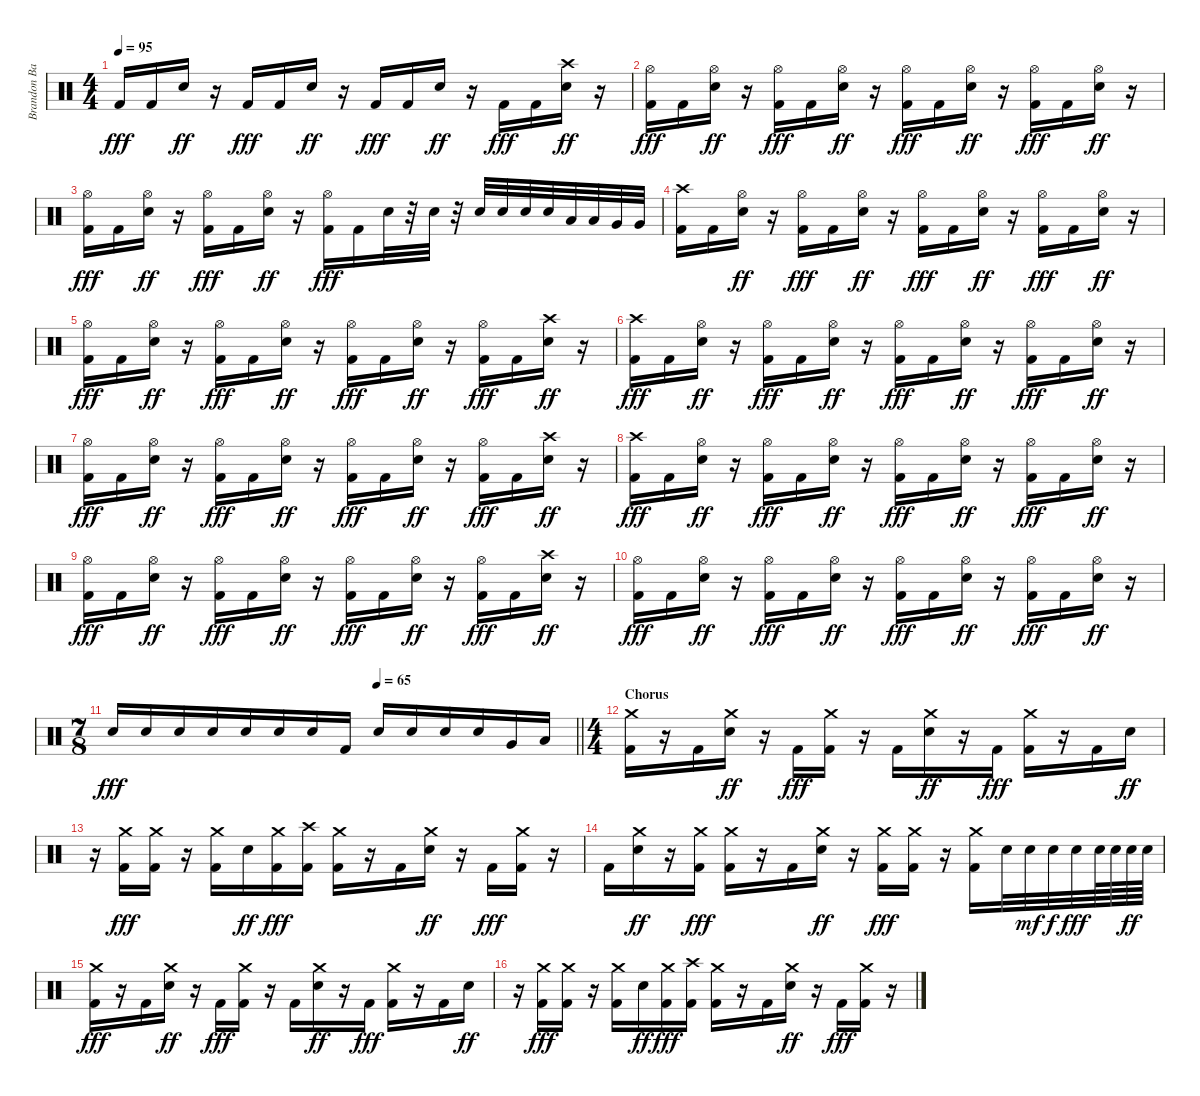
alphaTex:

\track ("Brandon Barnes" "Brandon Ba") {instrument percussion}
\staff {score}
\articulation defaults
\ts (4 4)
\tempo 95
\clef neutral
\ks c "Kick (hit) 2".16{dy fff} "Kick (hit) 2".16 "Electric Snare (hit)".16{dy ff}
r.16 "Kick (hit) 2".16{dy fff} "Kick (hit) 2".16 "Electric Snare (hit)".16{dy ff} r.16 "Kick (hit) 2".16{dy fff} "Kick (hit) 2".16 "Electric Snare (hit)".16{dy ff} r.16 "Kick (hit) 2".16{dy fff} "Kick (hit) 2".16 ("Crash high (hit)" "Electric Snare (hit)").16{dy ff} r.16 |
("Hi-Hat (open)" "Kick (hit) 2").16{dy fff} "Kick (hit) 2".16 ("Hi-Hat (open)" "Electric Snare (hit)").16{dy ff} r.16 ("Hi-Hat (open)" "Kick (hit) 2").16{dy fff} "Kick (hit) 2".16 ("Hi-Hat (open)" "Electric Snare (hit)").16{dy ff} r.16 ("Hi-Hat (open)" "Kick (hit) 2").16{dy fff} "Kick (hit) 2".16 ("Hi-Hat (open)" "Electric Snare (hit)").16{dy ff} r.16 ("Hi-Hat (open)" "Kick (hit) 2").16{dy fff} "Kick (hit) 2".16 ("Hi-Hat (open)" "Electric Snare (hit)").16{dy ff} r.16 |
("Hi-Hat (open)" "Kick (hit) 2").16{dy fff} "Kick (hit) 2".16 ("Hi-Hat (open)" "Electric Snare (hit)").16{dy ff} r.16 ("Hi-Hat (open)" "Kick (hit) 2").16{dy fff} "Kick (hit) 2".16 ("Hi-Hat (open)" "Electric Snare (hit)").16{dy ff} r.16 ("Hi-Hat (open)" "Kick (hit) 2").16{dy fff} "Kick (hit) 2".16 "Electric Snare (hit)".32 r.32 "Electric Snare (hit)".32 r.32 "Electric Snare (hit)".32 "Electric Snare (hit)".32 "Electric Snare (hit)".32 "Electric Snare (hit)".32 "Low Tom (hit)".32 "Low Tom (hit)".32 "Very Low Tom (hit)".32 "Very Low Tom (hit)".32 |
("Crash high (hit)" "Kick (hit) 2").16 "Kick (hit) 2".16 ("Hi-Hat (open)" "Electric Snare (hit)").16{dy ff} r.16 ("Hi-Hat (open)" "Kick (hit) 2").16{dy fff} "Kick (hit) 2".16 ("Hi-Hat (open)" "Electric Snare (hit)").16{dy ff} r.16 ("Hi-Hat (open)" "Kick (hit) 2").16{dy fff} "Kick (hit) 2".16 ("Hi-Hat (open)" "Electric Snare (hit)").16{dy ff} r.16 ("Hi-Hat (open)" "Kick (hit) 2").16{dy fff} "Kick (hit) 2".16 ("Hi-Hat (open)" "Electric Snare (hit)").16{dy ff} r.16 |
("Hi-Hat (open)" "Kick (hit) 2").16{dy fff} "Kick (hit) 2".16 ("Hi-Hat (open)" "Electric Snare (hit)").16{dy ff} r.16 ("Hi-Hat (open)" "Kick (hit) 2").16{dy fff} "Kick (hit) 2".16 ("Hi-Hat (open)" "Electric Snare (hit)").16{dy ff} r.16 ("Hi-Hat (open)" "Kick (hit) 2").16{dy fff} "Kick (hit) 2".16 ("Hi-Hat (open)" "Electric Snare (hit)").16{dy ff} r.16 ("Hi-Hat (open)" "Kick (hit) 2").16{dy fff} "Kick (hit) 2".16 ("Crash high (hit)" "Electric Snare (hit)").16{dy ff} r.16 |
("Crash high (hit)" "Kick (hit) 2").16{dy fff} "Kick (hit) 2".16 ("Hi-Hat (open)" "Electric Snare (hit)").16{dy ff} r.16 ("Hi-Hat (open)" "Kick (hit) 2").16{dy fff} "Kick (hit) 2".16 ("Hi-Hat (open)" "Electric Snare (hit)").16{dy ff} r.16 ("Hi-Hat (open)" "Kick (hit) 2").16{dy fff} "Kick (hit) 2".16 ("Hi-Hat (open)" "Electric Snare (hit)").16{dy ff} r.16 ("Hi-Hat (open)" "Kick (hit) 2").16{dy fff} "Kick (hit) 2".16 ("Hi-Hat (open)" "Electric Snare (hit)").16{dy ff} r.16 |
("Hi-Hat (open)" "Kick (hit) 2").16{dy fff} "Kick (hit) 2".16 ("Hi-Hat (open)" "Electric Snare (hit)").16{dy ff} r.16 ("Hi-Hat (open)" "Kick (hit) 2").16{dy fff} "Kick (hit) 2".16 ("Hi-Hat (open)" "Electric Snare (hit)").16{dy ff} r.16 ("Hi-Hat (open)" "Kick (hit) 2").16{dy fff} "Kick (hit) 2".16 ("Hi-Hat (open)" "Electric Snare (hit)").16{dy ff} r.16 ("Hi-Hat (open)" "Kick (hit) 2").16{dy fff} "Kick (hit) 2".16 ("Crash high (hit)" "Electric Snare (hit)").16{dy ff} r.16 |
("Crash high (hit)" "Kick (hit) 2").16{dy fff} "Kick (hit) 2".16 ("Hi-Hat (open)" "Electric Snare (hit)").16{dy ff} r.16 ("Hi-Hat (open)" "Kick (hit) 2").16{dy fff} "Kick (hit) 2".16 ("Hi-Hat (open)" "Electric Snare (hit)").16{dy ff} r.16 ("Hi-Hat (open)" "Kick (hit) 2").16{dy fff} "Kick (hit) 2".16 ("Hi-Hat (open)" "Electric Snare (hit)").16{dy ff} r.16 ("Hi-Hat (open)" "Kick (hit) 2").16{dy fff} "Kick (hit) 2".16 ("Hi-Hat (open)" "Electric Snare (hit)").16{dy ff} r.16 |
("Hi-Hat (open)" "Kick (hit) 2").16{dy fff} "Kick (hit) 2".16 ("Hi-Hat (open)" "Electric Snare (hit)").16{dy ff} r.16 ("Hi-Hat (open)" "Kick (hit) 2").16{dy fff} "Kick (hit) 2".16 ("Hi-Hat (open)" "Electric Snare (hit)").16{dy ff} r.16 ("Hi-Hat (open)" "Kick (hit) 2").16{dy fff} "Kick (hit) 2".16 ("Hi-Hat (open)" "Electric Snare (hit)").16{dy ff} r.16 ("Hi-Hat (open)" "Kick (hit) 2").16{dy fff} "Kick (hit) 2".16 ("Crash high (hit)" "Electric Snare (hit)").16{dy ff} r.16 |
("Hi-Hat (open)" "Kick (hit) 2").16{dy fff} "Kick (hit) 2".16 ("Hi-Hat (open)" "Electric Snare (hit)").16{dy ff} r.16 ("Hi-Hat (open)" "Kick (hit) 2").16{dy fff} "Kick (hit) 2".16 ("Hi-Hat (open)" "Electric Snare (hit)").16{dy ff} r.16 ("Hi-Hat (open)" "Kick (hit) 2").16{dy fff} "Kick (hit) 2".16 ("Hi-Hat (open)" "Electric Snare (hit)").16{dy ff} r.16 ("Hi-Hat (open)" "Kick (hit) 2").16{dy fff} "Kick (hit) 2".16 ("Hi-Hat (open)" "Electric Snare (hit)").16{dy ff} r.16 |
\ts (7 8)
\tempo (65 0.5714285714285714)
\barLineRight lightlight "Electric Snare (hit)".16{dy fff} "Electric Snare (hit)".16 "Electric Snare (hit)".16 "Electric Snare (hit)".16 "Electric Snare (hit)".16 "Electric Snare (hit)".16 "Electric Snare (hit)".16 "Kick (hit) 2".16 "Electric Snare (hit)".16 "Electric Snare (hit)".16 "Electric Snare (hit)".16 "Electric Snare (hit)".16 "Very Low Tom (hit)".16 "Low Floor Tom (hit)".16
|
\ts (4 4)
\section ("" "Chorus")
("Crash medium (hit)" "Kick (hit) 2").16 r.16 "Kick (hit) 2".16 ("Crash medium (hit)" "Electric Snare (hit)").16{dy ff} r.16 "Kick (hit) 2".16{dy fff} ("Crash medium (hit)" "Kick (hit) 2").16 r.16 "Kick (hit) 2".16 ("Crash medium (hit)" "Electric Snare (hit)").16{dy ff} r.16 "Kick (hit) 2".16{dy fff} ("Crash medium (hit)" "Kick (hit) 2").16 r.16 "Kick (hit) 2".16 "Electric Snare (hit)".16{dy ff} |
r.16 ("Crash medium (hit)" "Kick (hit) 2").16{dy fff} ("Crash medium (hit)" "Kick (hit) 2").16 r.16 ("Crash medium (hit)" "Kick (hit) 2").16 "Electric Snare (hit)".16{dy ff} ("Crash medium (hit)" "Kick (hit) 2").16{dy fff} ("Crash high (hit)" "Kick (hit) 2").16 ("Crash medium (hit)" "Kick (hit) 2").16 r.16 "Kick (hit) 2".16 ("Crash medium (hit)" "Electric Snare (hit)").16{dy ff} r.16 "Kick (hit) 2".16{dy fff} ("Crash medium (hit)" "Kick (hit) 2").16 r.16 |
"Kick (hit) 2".16 ("Crash medium (hit)" "Electric Snare (hit)").16{dy ff} r.16 ("Crash medium (hit)" "Kick (hit) 2").16{dy fff} ("Crash medium (hit)" "Kick (hit) 2").16 r.16 "Kick (hit) 2".16 ("Crash medium (hit)" "Electric Snare (hit)").16{dy ff} r.16 ("Crash medium (hit)" "Kick (hit) 2").16{dy fff} ("Crash medium (hit)" "Kick (hit) 2").16 r.16 ("Crash medium (hit)" "Kick (hit) 2").16 "Electric Snare (hit)".32 "Electric Snare (hit)".32{dy mf} "Electric Snare (hit)".32{dy f} "Electric Snare (hit)".32{dy fff} "Electric Snare (hit)".64 "Electric Snare (hit)".64 "Electric Snare (hit)".64{dy ff} "Electric Snare (hit)".64 |
("Crash medium (hit)" "Kick (hit) 2").16{dy fff} r.16 "Kick (hit) 2".16 ("Crash medium (hit)" "Electric Snare (hit)").16{dy ff} r.16 "Kick (hit) 2".16{dy fff} ("Crash medium (hit)" "Kick (hit) 2").16 r.16 "Kick (hit) 2".16 ("Crash medium (hit)" "Electric Snare (hit)").16{dy ff} r.16 "Kick (hit) 2".16{dy fff} ("Crash medium (hit)" "Kick (hit) 2").16 r.16 "Kick (hit) 2".16 "Electric Snare (hit)".16{dy ff} |
r.16 ("Crash medium (hit)" "Kick (hit) 2").16{dy fff} ("Crash medium (hit)" "Kick (hit) 2").16 r.16 ("Crash medium (hit)" "Kick (hit) 2").16 "Electric Snare (hit)".16{dy ff} ("Crash medium (hit)" "Kick (hit) 2").16{dy fff} ("Crash high (hit)" "Kick (hit) 2").16 ("Crash medium (hit)" "Kick (hit) 2").16 r.16 "Kick (hit) 2".16 ("Crash medium (hit)" "Electric Snare (hit)").16{dy ff} r.16 "Kick (hit) 2".16{dy fff} ("Crash medium (hit)" "Kick (hit) 2").16 r.16
